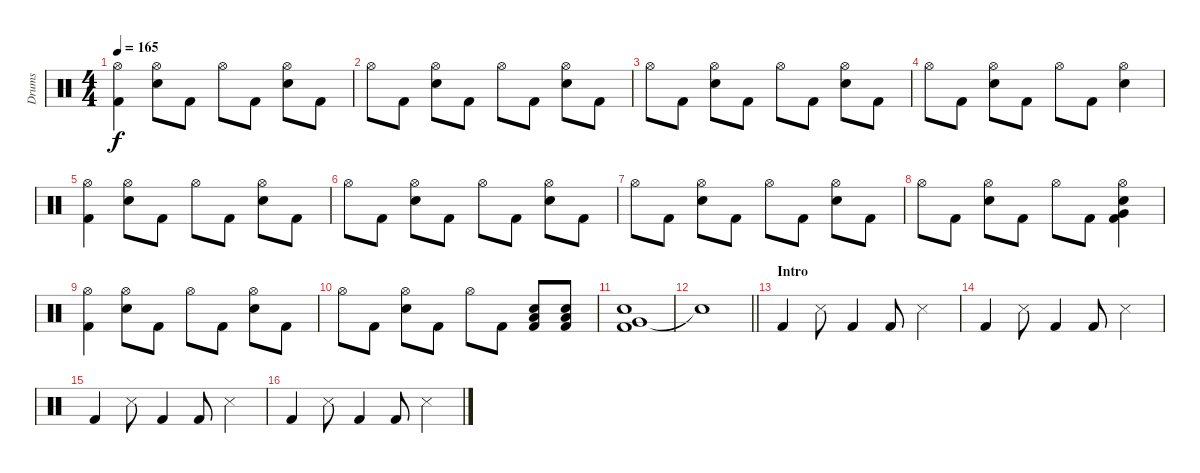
\track ("Drums" "Drums") {instrument percussion}
\staff {score}
\articulation defaults
\ts (4 4)
\tempo 165
\clef neutral
\ks c
("Hi-Hat (open)" "Kick (hit) 2").4{dy f} ("Hi-Hat (open)" "Electric Snare (hit)").8 "Kick (hit) 2".8 "Hi-Hat (open)".8 "Kick (hit) 2".8 ("Hi-Hat (open)" "Electric Snare (hit)").8 "Kick (hit) 2".8 |
"Hi-Hat (open)".8 "Kick (hit) 2".8 ("Hi-Hat (open)" "Electric Snare (hit)").8 "Kick (hit) 2".8 "Hi-Hat (open)".8 "Kick (hit) 2".8 ("Hi-Hat (open)" "Electric Snare (hit)").8 "Kick (hit) 2".8 |
"Hi-Hat (open)".8 "Kick (hit) 2".8 ("Hi-Hat (open)" "Electric Snare (hit)").8 "Kick (hit) 2".8 "Hi-Hat (open)".8 "Kick (hit) 2".8 ("Hi-Hat (open)" "Electric Snare (hit)").8 "Kick (hit) 2".8 |
"Hi-Hat (open)".8 "Kick (hit) 2".8 ("Hi-Hat (open)" "Electric Snare (hit)").8 "Kick (hit) 2".8 "Hi-Hat (open)".8 "Kick (hit) 2".8 ("Hi-Hat (open)" "Electric Snare (hit)").4 |
("Hi-Hat (open)" "Kick (hit) 2").4 ("Hi-Hat (open)" "Electric Snare (hit)").8 "Kick (hit) 2".8 "Hi-Hat (open)".8 "Kick (hit) 2".8 ("Hi-Hat (open)" "Electric Snare (hit)").8 "Kick (hit) 2".8 |
"Hi-Hat (open)".8 "Kick (hit) 2".8 ("Hi-Hat (open)" "Electric Snare (hit)").8 "Kick (hit) 2".8 "Hi-Hat (open)".8 "Kick (hit) 2".8 ("Hi-Hat (open)" "Electric Snare (hit)").8 "Kick (hit) 2".8 |
"Hi-Hat (open)".8 "Kick (hit) 2".8 ("Hi-Hat (open)" "Electric Snare (hit)").8 "Kick (hit) 2".8 "Hi-Hat (open)".8 "Kick (hit) 2".8 ("Hi-Hat (open)" "Electric Snare (hit)").8 "Kick (hit) 2".8 |
"Hi-Hat (open)".8 "Kick (hit) 2".8 ("Hi-Hat (open)" "Electric Snare (hit)").8 "Kick (hit) 2".8 "Hi-Hat (open)".8 "Kick (hit) 2".8 ("Hi-Hat (open)" "Very Low Tom (hit)" "Electric Snare (hit)" "Kick (hit) 2").4 |
("Hi-Hat (open)" "Kick (hit) 2").4 ("Hi-Hat (open)" "Electric Snare (hit)").8 "Kick (hit) 2".8 "Hi-Hat (open)".8 "Kick (hit) 2".8 ("Hi-Hat (open)" "Electric Snare (hit)").8 "Kick (hit) 2".8 |
"Hi-Hat (open)".8 "Kick (hit) 2".8 ("Hi-Hat (open)" "Electric Snare (hit)").8 "Kick (hit) 2".8 "Hi-Hat (open)".8 "Kick (hit) 2".8 ("Low Tom (hit)" "Electric Snare (hit)" "Kick (hit) 2").8 ("Low Tom (hit)" "Electric Snare (hit)" "Kick (hit) 2").8 |
("Very Low Tom (hit)" "Electric Snare (hit)" "Kick (hit) 2").1 |
\barLineRight lightlight "Snare (hit)"{t}.1
|
\section ("" "Intro")
"Kick (hit) 2".4 "Snare (side stick) 3".8 "Kick (hit) 2".4 "Kick (hit) 2".8 "Snare (side stick) 3".4 |
"Kick (hit) 2".4 "Snare (side stick) 3".8 "Kick (hit) 2".4 "Kick (hit) 2".8 "Snare (side stick) 3".4 |
"Kick (hit) 2".4 "Snare (side stick) 3".8 "Kick (hit) 2".4 "Kick (hit) 2".8 "Snare (side stick) 3".4 |
"Kick (hit) 2".4 "Snare (side stick) 3".8 "Kick (hit) 2".4 "Kick (hit) 2".8 "Snare (side stick) 3".4
